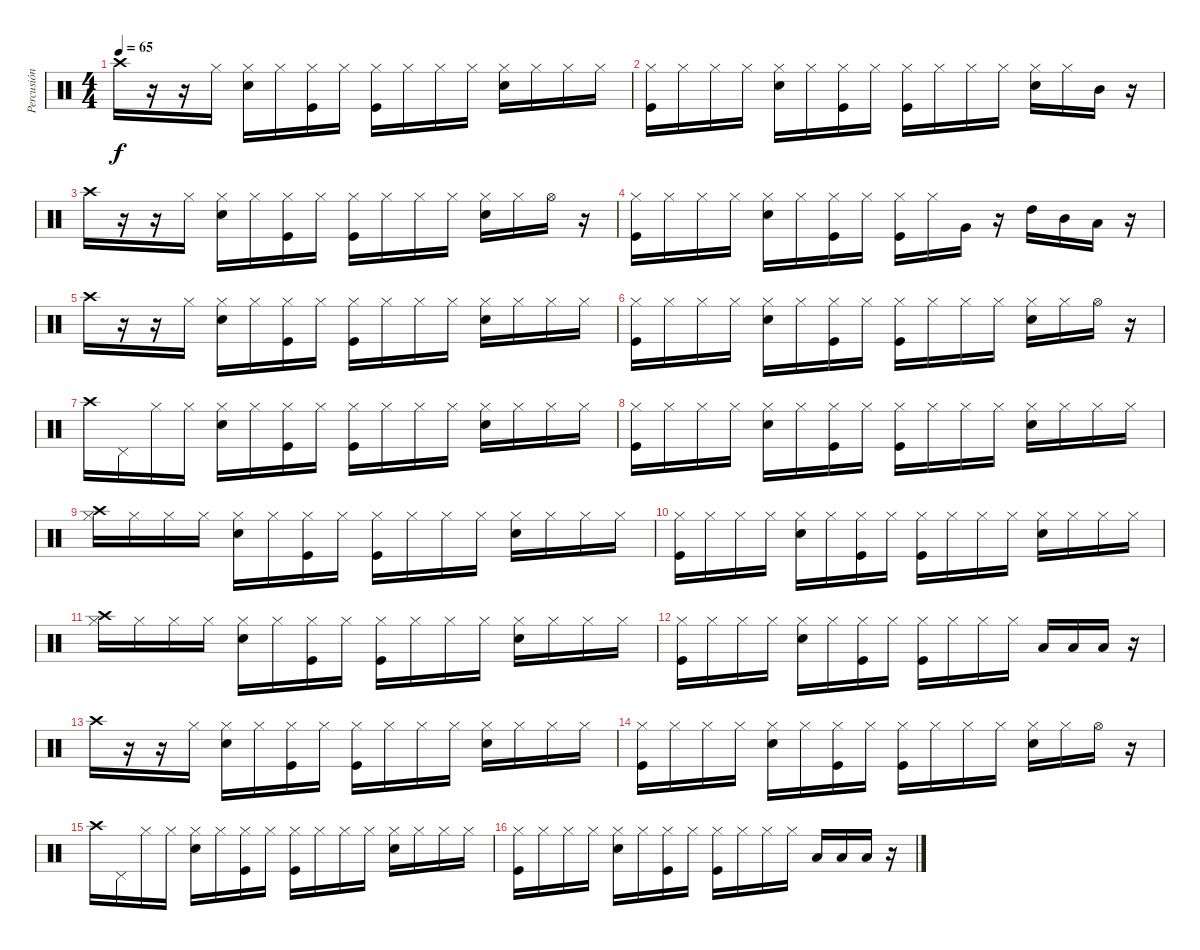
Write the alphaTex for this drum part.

\track ("Percusión" "Percusión") {instrument percussion}
\staff {score}
\articulation defaults
\ts (4 4)
\tempo 65
\clef neutral
\ks c "Crash high (hit)".16{dy f}
r.16 r.16 "Hi-Hat (closed)".16 ("Hi-Hat (closed)" "Snare (hit) 2").16 "Hi-Hat (closed)".16 ("Hi-Hat (closed)" "Kick (hit)").16 "Hi-Hat (closed)".16 ("Hi-Hat (closed)" "Kick (hit)").16 "Hi-Hat (closed)".16 "Hi-Hat (closed)".16 "Hi-Hat (closed)".16 ("Hi-Hat (closed)" "Snare (hit) 2").16 "Hi-Hat (closed)".16 "Hi-Hat (closed)".16 "Hi-Hat (closed)".16 |
("Hi-Hat (closed)" "Kick (hit)").16 "Hi-Hat (closed)".16 "Hi-Hat (closed)".16 "Hi-Hat (closed)".16 ("Hi-Hat (closed)" "Snare (hit) 2").16 "Hi-Hat (closed)".16 ("Hi-Hat (closed)" "Kick (hit)").16 "Hi-Hat (closed)".16 ("Hi-Hat (closed)" "Kick (hit)").16 "Hi-Hat (closed)".16 "Hi-Hat (closed)".16 "Hi-Hat (closed)".16 ("Hi-Hat (closed)" "Snare (hit) 2").16 "Hi-Hat (closed)".16 "Mid Tom (hit)".16 r.16 |
"Crash high (hit)".16 r.16 r.16 "Hi-Hat (closed)".16 ("Hi-Hat (closed)" "Snare (hit) 2").16 "Hi-Hat (closed)".16 ("Hi-Hat (closed)" "Kick (hit)").16 "Hi-Hat (closed)".16 ("Hi-Hat (closed)" "Kick (hit)").16 "Hi-Hat (closed)".16 "Hi-Hat (closed)".16 "Hi-Hat (closed)".16 ("Hi-Hat (closed)" "Snare (hit) 2").16 "Hi-Hat (closed)".16 "Hi-Hat (open)".16 r.16 |
("Hi-Hat (closed)" "Kick (hit)").16 "Hi-Hat (closed)".16 "Hi-Hat (closed)".16 "Hi-Hat (closed)".16 ("Hi-Hat (closed)" "Snare (hit) 2").16 "Hi-Hat (closed)".16 ("Hi-Hat (closed)" "Kick (hit)").16 "Hi-Hat (closed)".16 ("Hi-Hat (closed)" "Kick (hit)").16 "Hi-Hat (closed)".16 "Very Low Tom (hit)".16 r.16 "High Tom (hit)".16 "Mid Tom (hit)".16 "Low Tom (hit)".16 r.16 |
"Crash high (hit)".16 r.16 r.16 "Hi-Hat (closed)".16 ("Hi-Hat (closed)" "Snare (hit) 2").16 "Hi-Hat (closed)".16 ("Hi-Hat (closed)" "Kick (hit)").16 "Hi-Hat (closed)".16 ("Hi-Hat (closed)" "Kick (hit)").16 "Hi-Hat (closed)".16 "Hi-Hat (closed)".16 "Hi-Hat (closed)".16 ("Hi-Hat (closed)" "Snare (hit) 2").16 "Hi-Hat (closed)".16 "Hi-Hat (closed)".16 "Hi-Hat (closed)".16 |
("Hi-Hat (closed)" "Kick (hit)").16 "Hi-Hat (closed)".16 "Hi-Hat (closed)".16 "Hi-Hat (closed)".16 ("Hi-Hat (closed)" "Snare (hit) 2").16 "Hi-Hat (closed)".16 ("Hi-Hat (closed)" "Kick (hit)").16 "Hi-Hat (closed)".16 ("Hi-Hat (closed)" "Kick (hit)").16 "Hi-Hat (closed)".16 "Hi-Hat (closed)".16 "Hi-Hat (closed)".16 ("Hi-Hat (closed)" "Snare (hit) 2").16 "Hi-Hat (closed)".16 "Hi-Hat (open)".16 r.16 |
"Crash high (hit)".16 "Pedal Hi-Hat (hit)".16 "Hi-Hat (closed)".16 "Hi-Hat (closed)".16 ("Hi-Hat (closed)" "Snare (hit) 2").16 "Hi-Hat (closed)".16 ("Hi-Hat (closed)" "Kick (hit)").16 "Hi-Hat (closed)".16 ("Hi-Hat (closed)" "Kick (hit)").16 "Hi-Hat (closed)".16 "Hi-Hat (closed)".16 "Hi-Hat (closed)".16 ("Hi-Hat (closed)" "Snare (hit) 2").16 "Hi-Hat (closed)".16 "Hi-Hat (closed)".16 "Hi-Hat (closed)".16 |
("Hi-Hat (closed)" "Kick (hit)").16 "Hi-Hat (closed)".16 "Hi-Hat (closed)".16 "Hi-Hat (closed)".16 ("Hi-Hat (closed)" "Snare (hit) 2").16 "Hi-Hat (closed)".16 ("Hi-Hat (closed)" "Kick (hit)").16 "Hi-Hat (closed)".16 ("Hi-Hat (closed)" "Kick (hit)").16 "Hi-Hat (closed)".16 "Hi-Hat (closed)".16 "Hi-Hat (closed)".16 ("Hi-Hat (closed)" "Snare (hit) 2").16 "Hi-Hat (closed)".16 "Hi-Hat (closed)".16 "Hi-Hat (closed)".16 |
("Hi-Hat (closed)" "Crash high (hit)").16 "Hi-Hat (closed)".16 "Hi-Hat (closed)".16 "Hi-Hat (closed)".16 ("Hi-Hat (closed)" "Snare (hit) 2").16 "Hi-Hat (closed)".16 ("Hi-Hat (closed)" "Kick (hit)").16 "Hi-Hat (closed)".16 ("Hi-Hat (closed)" "Kick (hit)").16 "Hi-Hat (closed)".16 "Hi-Hat (closed)".16 "Hi-Hat (closed)".16 ("Hi-Hat (closed)" "Snare (hit) 2").16 "Hi-Hat (closed)".16 "Hi-Hat (closed)".16 "Hi-Hat (closed)".16 |
("Hi-Hat (closed)" "Kick (hit)").16 "Hi-Hat (closed)".16 "Hi-Hat (closed)".16 "Hi-Hat (closed)".16 ("Hi-Hat (closed)" "Snare (hit) 2").16 "Hi-Hat (closed)".16 ("Hi-Hat (closed)" "Kick (hit)").16 "Hi-Hat (closed)".16 ("Hi-Hat (closed)" "Kick (hit)").16 "Hi-Hat (closed)".16 "Hi-Hat (closed)".16 "Hi-Hat (closed)".16 ("Hi-Hat (closed)" "Snare (hit) 2").16 "Hi-Hat (closed)".16 "Hi-Hat (closed)".16 "Hi-Hat (closed)".16 |
("Hi-Hat (closed)" "Crash high (hit)").16 "Hi-Hat (closed)".16 "Hi-Hat (closed)".16 "Hi-Hat (closed)".16 ("Hi-Hat (closed)" "Snare (hit) 2").16 "Hi-Hat (closed)".16 ("Hi-Hat (closed)" "Kick (hit)").16 "Hi-Hat (closed)".16 ("Hi-Hat (closed)" "Kick (hit)").16 "Hi-Hat (closed)".16 "Hi-Hat (closed)".16 "Hi-Hat (closed)".16 ("Hi-Hat (closed)" "Snare (hit) 2").16 "Hi-Hat (closed)".16 "Hi-Hat (closed)".16 "Hi-Hat (closed)".16 |
("Hi-Hat (closed)" "Kick (hit)").16 "Hi-Hat (closed)".16 "Hi-Hat (closed)".16 "Hi-Hat (closed)".16 ("Hi-Hat (closed)" "Snare (hit) 2").16 "Hi-Hat (closed)".16 ("Hi-Hat (closed)" "Kick (hit)").16 "Hi-Hat (closed)".16 ("Hi-Hat (closed)" "Kick (hit)").16 "Hi-Hat (closed)".16 "Hi-Hat (closed)".16 "Hi-Hat (closed)".16 "Low Tom (hit)".16 "Low Tom (hit)".16 "Low Floor Tom (hit)".16 r.16 |
"Crash high (hit)".16 r.16 r.16 "Hi-Hat (closed)".16 ("Hi-Hat (closed)" "Snare (hit) 2").16 "Hi-Hat (closed)".16 ("Hi-Hat (closed)" "Kick (hit)").16 "Hi-Hat (closed)".16 ("Hi-Hat (closed)" "Kick (hit)").16 "Hi-Hat (closed)".16 "Hi-Hat (closed)".16 "Hi-Hat (closed)".16 ("Hi-Hat (closed)" "Snare (hit) 2").16 "Hi-Hat (closed)".16 "Hi-Hat (closed)".16 "Hi-Hat (closed)".16 |
("Hi-Hat (closed)" "Kick (hit)").16 "Hi-Hat (closed)".16 "Hi-Hat (closed)".16 "Hi-Hat (closed)".16 ("Hi-Hat (closed)" "Snare (hit) 2").16 "Hi-Hat (closed)".16 ("Hi-Hat (closed)" "Kick (hit)").16 "Hi-Hat (closed)".16 ("Hi-Hat (closed)" "Kick (hit)").16 "Hi-Hat (closed)".16 "Hi-Hat (closed)".16 "Hi-Hat (closed)".16 ("Hi-Hat (closed)" "Snare (hit) 2").16 "Hi-Hat (closed)".16 "Hi-Hat (open)".16 r.16 |
"Crash high (hit)".16 "Pedal Hi-Hat (hit)".16 "Hi-Hat (closed)".16 "Hi-Hat (closed)".16 ("Hi-Hat (closed)" "Snare (hit) 2").16 "Hi-Hat (closed)".16 ("Hi-Hat (closed)" "Kick (hit)").16 "Hi-Hat (closed)".16 ("Hi-Hat (closed)" "Kick (hit)").16 "Hi-Hat (closed)".16 "Hi-Hat (closed)".16 "Hi-Hat (closed)".16 ("Hi-Hat (closed)" "Snare (hit) 2").16 "Hi-Hat (closed)".16 "Hi-Hat (closed)".16 "Hi-Hat (closed)".16 |
("Hi-Hat (closed)" "Kick (hit)").16 "Hi-Hat (closed)".16 "Hi-Hat (closed)".16 "Hi-Hat (closed)".16 ("Hi-Hat (closed)" "Snare (hit) 2").16 "Hi-Hat (closed)".16 ("Hi-Hat (closed)" "Kick (hit)").16 "Hi-Hat (closed)".16 ("Hi-Hat (closed)" "Kick (hit)").16 "Hi-Hat (closed)".16 "Hi-Hat (closed)".16 "Hi-Hat (closed)".16 "Low Tom (hit)".16 "Low Tom (hit)".16 "Low Floor Tom (hit)".16 r.16
